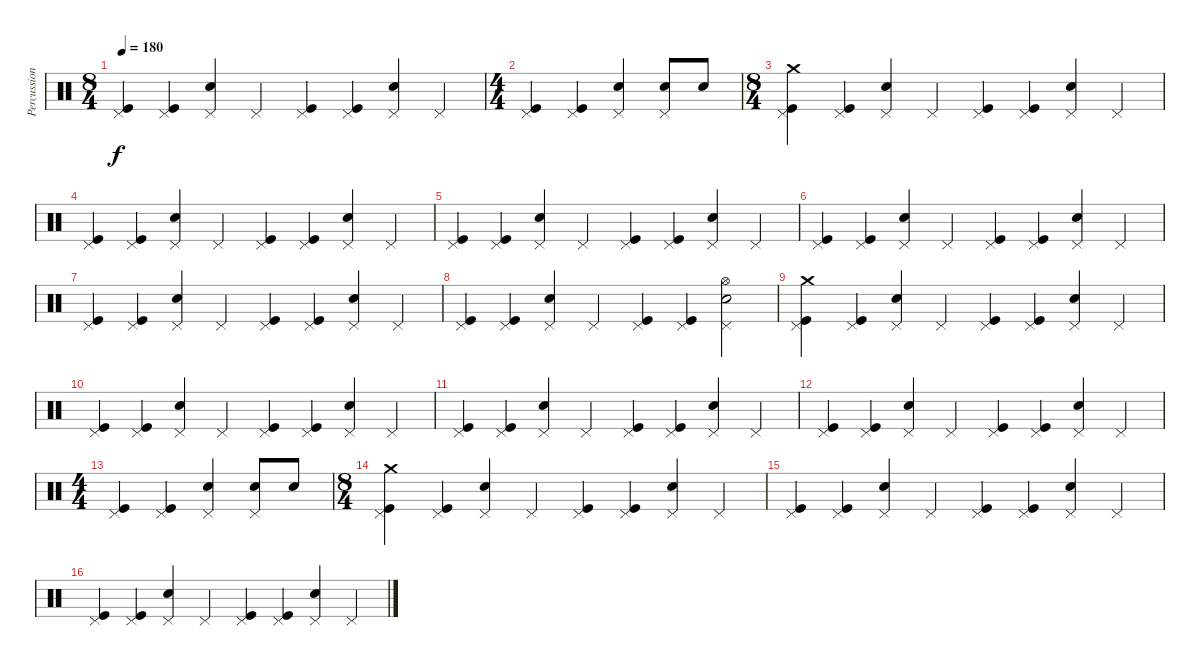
\track ("Percussion" "Percussion") {instrument percussion}
\staff {score}
\articulation defaults
\ts (8 4)
\tempo 180
\clef neutral
\ks c
("Pedal Hi-Hat (hit)" "Kick (hit)").4{dy f} ("Pedal Hi-Hat (hit)" "Kick (hit)").4 ("Pedal Hi-Hat (hit)" "Electric Snare (hit)").4 "Pedal Hi-Hat (hit)".4 ("Pedal Hi-Hat (hit)" "Kick (hit)").4 ("Pedal Hi-Hat (hit)" "Kick (hit)").4 ("Pedal Hi-Hat (hit)" "Electric Snare (hit)").4 "Pedal Hi-Hat (hit)".4 |
\ts (4 4)
("Pedal Hi-Hat (hit)" "Kick (hit)").4 ("Pedal Hi-Hat (hit)" "Kick (hit)").4 ("Pedal Hi-Hat (hit)" "Electric Snare (hit)").4 ("Pedal Hi-Hat (hit)" "Electric Snare (hit)").8 "Electric Snare (hit)".8 |
\ts (8 4)
("Crash medium (hit)" "Pedal Hi-Hat (hit)" "Kick (hit)").4 ("Pedal Hi-Hat (hit)" "Kick (hit)").4 ("Pedal Hi-Hat (hit)" "Electric Snare (hit)").4 "Pedal Hi-Hat (hit)".4 ("Pedal Hi-Hat (hit)" "Kick (hit)").4 ("Pedal Hi-Hat (hit)" "Kick (hit)").4 ("Pedal Hi-Hat (hit)" "Electric Snare (hit)").4 "Pedal Hi-Hat (hit)".4 |
("Pedal Hi-Hat (hit)" "Kick (hit)").4 ("Pedal Hi-Hat (hit)" "Kick (hit)").4 ("Pedal Hi-Hat (hit)" "Electric Snare (hit)").4 "Pedal Hi-Hat (hit)".4 ("Pedal Hi-Hat (hit)" "Kick (hit)").4 ("Pedal Hi-Hat (hit)" "Kick (hit)").4 ("Pedal Hi-Hat (hit)" "Electric Snare (hit)").4 "Pedal Hi-Hat (hit)".4 |
("Pedal Hi-Hat (hit)" "Kick (hit)").4 ("Pedal Hi-Hat (hit)" "Kick (hit)").4 ("Pedal Hi-Hat (hit)" "Electric Snare (hit)").4 "Pedal Hi-Hat (hit)".4 ("Pedal Hi-Hat (hit)" "Kick (hit)").4 ("Pedal Hi-Hat (hit)" "Kick (hit)").4 ("Pedal Hi-Hat (hit)" "Electric Snare (hit)").4 "Pedal Hi-Hat (hit)".4 |
("Pedal Hi-Hat (hit)" "Kick (hit)").4 ("Pedal Hi-Hat (hit)" "Kick (hit)").4 ("Pedal Hi-Hat (hit)" "Electric Snare (hit)").4 "Pedal Hi-Hat (hit)".4 ("Pedal Hi-Hat (hit)" "Kick (hit)").4 ("Pedal Hi-Hat (hit)" "Kick (hit)").4 ("Pedal Hi-Hat (hit)" "Electric Snare (hit)").4 "Pedal Hi-Hat (hit)".4 |
("Pedal Hi-Hat (hit)" "Kick (hit)").4 ("Pedal Hi-Hat (hit)" "Kick (hit)").4 ("Pedal Hi-Hat (hit)" "Electric Snare (hit)").4 "Pedal Hi-Hat (hit)".4 ("Pedal Hi-Hat (hit)" "Kick (hit)").4 ("Pedal Hi-Hat (hit)" "Kick (hit)").4 ("Pedal Hi-Hat (hit)" "Electric Snare (hit)").4 "Pedal Hi-Hat (hit)".4 |
("Pedal Hi-Hat (hit)" "Kick (hit)").4 ("Pedal Hi-Hat (hit)" "Kick (hit)").4 ("Pedal Hi-Hat (hit)" "Electric Snare (hit)").4 "Pedal Hi-Hat (hit)".4 ("Pedal Hi-Hat (hit)" "Kick (hit)").4 ("Pedal Hi-Hat (hit)" "Kick (hit)").4 ("Pedal Hi-Hat (hit)" "Electric Snare (hit)" "Hi-Hat (open)").2 |
("Crash medium (hit)" "Pedal Hi-Hat (hit)" "Kick (hit)").4 ("Pedal Hi-Hat (hit)" "Kick (hit)").4 ("Pedal Hi-Hat (hit)" "Electric Snare (hit)").4 "Pedal Hi-Hat (hit)".4 ("Pedal Hi-Hat (hit)" "Kick (hit)").4 ("Pedal Hi-Hat (hit)" "Kick (hit)").4 ("Pedal Hi-Hat (hit)" "Electric Snare (hit)").4 "Pedal Hi-Hat (hit)".4 |
("Pedal Hi-Hat (hit)" "Kick (hit)").4 ("Pedal Hi-Hat (hit)" "Kick (hit)").4 ("Pedal Hi-Hat (hit)" "Electric Snare (hit)").4 "Pedal Hi-Hat (hit)".4 ("Pedal Hi-Hat (hit)" "Kick (hit)").4 ("Pedal Hi-Hat (hit)" "Kick (hit)").4 ("Pedal Hi-Hat (hit)" "Electric Snare (hit)").4 "Pedal Hi-Hat (hit)".4 |
("Pedal Hi-Hat (hit)" "Kick (hit)").4 ("Pedal Hi-Hat (hit)" "Kick (hit)").4 ("Pedal Hi-Hat (hit)" "Electric Snare (hit)").4 "Pedal Hi-Hat (hit)".4 ("Pedal Hi-Hat (hit)" "Kick (hit)").4 ("Pedal Hi-Hat (hit)" "Kick (hit)").4 ("Pedal Hi-Hat (hit)" "Electric Snare (hit)").4 "Pedal Hi-Hat (hit)".4 |
("Pedal Hi-Hat (hit)" "Kick (hit)").4 ("Pedal Hi-Hat (hit)" "Kick (hit)").4 ("Pedal Hi-Hat (hit)" "Electric Snare (hit)").4 "Pedal Hi-Hat (hit)".4 ("Pedal Hi-Hat (hit)" "Kick (hit)").4 ("Pedal Hi-Hat (hit)" "Kick (hit)").4 ("Pedal Hi-Hat (hit)" "Electric Snare (hit)").4 "Pedal Hi-Hat (hit)".4 |
\ts (4 4)
("Pedal Hi-Hat (hit)" "Kick (hit)").4 ("Pedal Hi-Hat (hit)" "Kick (hit)").4 ("Pedal Hi-Hat (hit)" "Electric Snare (hit)").4 ("Pedal Hi-Hat (hit)" "Electric Snare (hit)").8 "Electric Snare (hit)".8 |
\ts (8 4)
("Crash medium (hit)" "Pedal Hi-Hat (hit)" "Kick (hit)").4 ("Pedal Hi-Hat (hit)" "Kick (hit)").4 ("Pedal Hi-Hat (hit)" "Electric Snare (hit)").4 "Pedal Hi-Hat (hit)".4 ("Pedal Hi-Hat (hit)" "Kick (hit)").4 ("Pedal Hi-Hat (hit)" "Kick (hit)").4 ("Pedal Hi-Hat (hit)" "Electric Snare (hit)").4 "Pedal Hi-Hat (hit)".4 |
("Pedal Hi-Hat (hit)" "Kick (hit)").4 ("Pedal Hi-Hat (hit)" "Kick (hit)").4 ("Pedal Hi-Hat (hit)" "Electric Snare (hit)").4 "Pedal Hi-Hat (hit)".4 ("Pedal Hi-Hat (hit)" "Kick (hit)").4 ("Pedal Hi-Hat (hit)" "Kick (hit)").4 ("Pedal Hi-Hat (hit)" "Electric Snare (hit)").4 "Pedal Hi-Hat (hit)".4 |
("Pedal Hi-Hat (hit)" "Kick (hit)").4 ("Pedal Hi-Hat (hit)" "Kick (hit)").4 ("Pedal Hi-Hat (hit)" "Electric Snare (hit)").4 "Pedal Hi-Hat (hit)".4 ("Pedal Hi-Hat (hit)" "Kick (hit)").4 ("Pedal Hi-Hat (hit)" "Kick (hit)").4 ("Pedal Hi-Hat (hit)" "Electric Snare (hit)").4 "Pedal Hi-Hat (hit)".4
